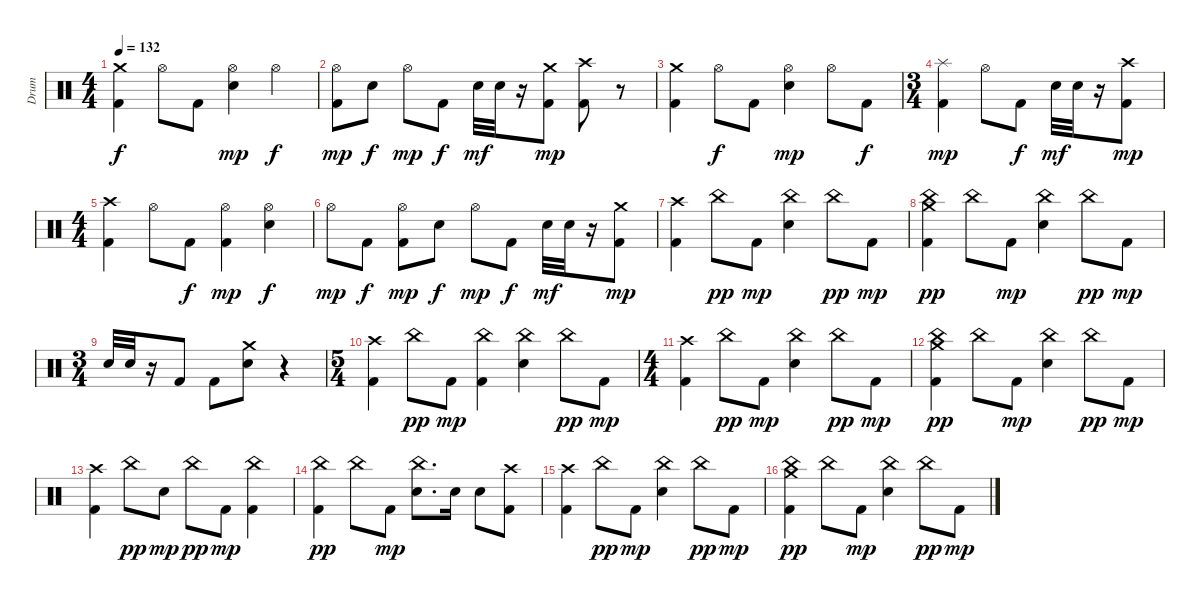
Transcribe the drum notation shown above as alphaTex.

\track ("Drum" "Drum") {instrument percussion}
\staff {score}
\articulation defaults
\ts (4 4)
\tempo 132
\clef neutral
\ks c
("Kick (hit) 2" "Crash medium (hit)").4{dy f} "Hi-Hat (open)".8 "Kick (hit) 2".8 ("Hi-Hat (open)" "Electric Snare (hit)").4{dy mp} "Hi-Hat (open)".4{dy f} |
("Hi-Hat (open)" "Kick (hit) 2").8{dy mp} "Electric Snare (hit)".8{dy f} "Hi-Hat (open)".8{dy mp} "Kick (hit) 2".8{dy f} "Electric Snare (hit)".32{dy mf} "Electric Snare (hit)".32 r.16 ("Kick (hit) 2" "Crash medium (hit)").8{dy mp} ("Crash high (hit)" "Kick (hit) 2").8 r.8 |
("Crash medium (hit)" "Kick (hit) 2").4 "Hi-Hat (open)".8{dy f} "Kick (hit) 2".8 ("Electric Snare (hit)" "Hi-Hat (open)").4{dy mp} "Hi-Hat (open)".8 "Kick (hit) 2".8{dy f} |
\ts (3 4)
("Kick (hit) 2" "Splash (hit)").4{dy mp} "Hi-Hat (open)".8 "Kick (hit) 2".8{dy f} "Electric Snare (hit)".32{dy mf} "Electric Snare (hit)".32 r.16 ("Kick (hit) 2" "Crash high (hit)").8{dy mp} |
\ts (4 4)
("Kick (hit) 2" "Crash high (hit)").4 "Hi-Hat (open)".8 "Kick (hit) 2".8{dy f} ("Hi-Hat (open)" "Kick (hit) 2").4{dy mp} ("Hi-Hat (open)" "Electric Snare (hit)").4{dy f} |
"Hi-Hat (open)".8{dy mp} "Kick (hit) 2".8{dy f} ("Hi-Hat (open)" "Kick (hit) 2").8{dy mp} "Electric Snare (hit)".8{dy f} "Hi-Hat (open)".8{dy mp} "Kick (hit) 2".8{dy f} "Electric Snare (hit)".32{dy mf} "Electric Snare (hit)".32 r.16 ("Kick (hit) 2" "Crash medium (hit)").8{dy mp} |
("Kick (hit) 2" "Crash high (hit)").4 "China (hit)".8{dy pp} "Kick (hit) 2".8{dy mp} ("China (hit)" "Electric Snare (hit)").4 "China (hit)".8{dy pp} "Kick (hit) 2".8{dy mp} |
("Kick (hit) 2" "Crash medium (hit)" "China (hit)").4{dy pp} "China (hit)".8 "Kick (hit) 2".8{dy mp} ("China (hit)" "Electric Snare (hit)").4 "China (hit)".8{dy pp} "Kick (hit) 2".8{dy mp} |
\ts (3 4)
"Electric Snare (hit)".32 "Electric Snare (hit)".32 r.16 "Kick (hit) 2".8 "Kick (hit) 2".8 ("Electric Snare (hit)" "Crash medium (hit)").8 r.4 |
\ts (5 4)
("Crash high (hit)" "Kick (hit) 2").4 "China (hit)".8{dy pp} "Kick (hit) 2".8{dy mp} ("China (hit)" "Kick (hit) 2").4 ("China (hit)" "Electric Snare (hit)").4 "China (hit)".8{dy pp} "Kick (hit) 2".8{dy mp} |
\ts (4 4)
("Crash high (hit)" "Kick (hit) 2").4 "China (hit)".8{dy pp} "Kick (hit) 2".8{dy mp} ("China (hit)" "Electric Snare (hit)").4 "China (hit)".8{dy pp} "Kick (hit) 2".8{dy mp} |
("Kick (hit) 2" "Crash medium (hit)" "China (hit)").4{dy pp} "China (hit)".8 "Kick (hit) 2".8{dy mp} ("China (hit)" "Electric Snare (hit)").4 "China (hit)".8{dy pp} "Kick (hit) 2".8{dy mp} |
("Kick (hit) 2" "Crash high (hit)").4 "China (hit)".8{dy pp} "Electric Snare (hit)".8{dy mp} "China (hit)".8{dy pp} "Kick (hit) 2".8{dy mp} ("China (hit)" "Kick (hit) 2").4 |
("Kick (hit) 2" "China (hit)").4{dy pp} "China (hit)".8 "Kick (hit) 2".8{dy mp} ("China (hit)" "Electric Snare (hit)").8{d} "Electric Snare (hit)".16 "Electric Snare (hit)".8 ("Kick (hit) 2" "Crash high (hit)").8 |
("Kick (hit) 2" "Crash high (hit)").4 "China (hit)".8{dy pp} "Kick (hit) 2".8{dy mp} ("China (hit)" "Electric Snare (hit)").4 "China (hit)".8{dy pp} "Kick (hit) 2".8{dy mp} |
("Kick (hit) 2" "Crash medium (hit)" "China (hit)").4{dy pp} "China (hit)".8 "Kick (hit) 2".8{dy mp} ("China (hit)" "Electric Snare (hit)").4 "China (hit)".8{dy pp} "Kick (hit) 2".8{dy mp}
